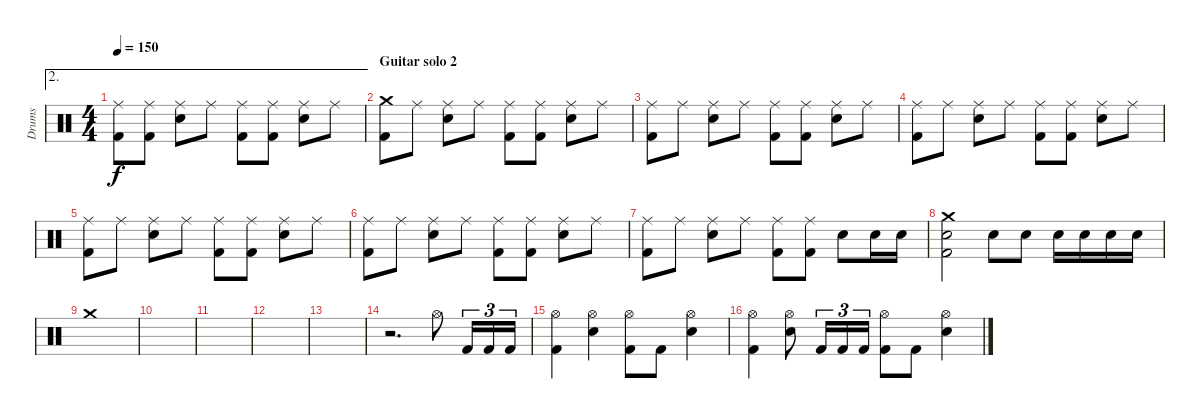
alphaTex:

\track ("Drums" "Drums") {instrument percussion}
\staff {score}
\articulation defaults
\ae 2
\ts (4 4)
\tempo 150
\clef neutral
\ks c
("Ride (middle)" "Kick (hit) 2").8{dy f} ("Ride (middle)" "Kick (hit) 2").8 ("Ride (middle)" "Electric Snare (hit)").8 "Ride (middle)".8 ("Ride (middle)" "Kick (hit) 2").8 ("Ride (middle)" "Kick (hit) 2").8 ("Ride (middle)" "Electric Snare (hit)").8 "Ride (middle)".8 |
\section ("" "Guitar solo 2")
("Crash medium (hit)" "Kick (hit) 2").8 "Ride (middle)".8 ("Ride (middle)" "Electric Snare (hit)").8 "Ride (middle)".8 ("Ride (middle)" "Kick (hit) 2").8 ("Ride (middle)" "Kick (hit) 2").8 ("Ride (middle)" "Electric Snare (hit)").8 "Ride (middle)".8 |
("Ride (middle)" "Kick (hit) 2").8 "Ride (middle)".8 ("Ride (middle)" "Electric Snare (hit)").8 "Ride (middle)".8 ("Ride (middle)" "Kick (hit) 2").8 ("Ride (middle)" "Kick (hit) 2").8 ("Ride (middle)" "Electric Snare (hit)").8 "Ride (middle)".8 |
("Ride (middle)" "Kick (hit) 2").8 "Ride (middle)".8 ("Ride (middle)" "Electric Snare (hit)").8 "Ride (middle)".8 ("Ride (middle)" "Kick (hit) 2").8 ("Ride (middle)" "Kick (hit) 2").8 ("Ride (middle)" "Electric Snare (hit)").8 "Ride (middle)".8 |
("Ride (middle)" "Kick (hit) 2").8 "Ride (middle)".8 ("Ride (middle)" "Electric Snare (hit)").8 "Ride (middle)".8 ("Ride (middle)" "Kick (hit) 2").8 ("Ride (middle)" "Kick (hit) 2").8 ("Ride (middle)" "Electric Snare (hit)").8 "Ride (middle)".8 |
("Ride (middle)" "Kick (hit) 2").8 "Ride (middle)".8 ("Ride (middle)" "Electric Snare (hit)").8 "Ride (middle)".8 ("Ride (middle)" "Kick (hit) 2").8 ("Ride (middle)" "Kick (hit) 2").8 ("Ride (middle)" "Electric Snare (hit)").8 "Ride (middle)".8 |
("Ride (middle)" "Kick (hit) 2").8 "Ride (middle)".8 ("Ride (middle)" "Electric Snare (hit)").8 "Ride (middle)".8 ("Ride (middle)" "Kick (hit) 2").8 ("Ride (middle)" "Kick (hit) 2").8 "Electric Snare (hit)".8 "Electric Snare (hit)".16 "Electric Snare (hit)".16 |
("Crash medium (hit)" "Electric Snare (hit)" "Kick (hit) 2").2 "Electric Snare (hit)".8 "Electric Snare (hit)".8 "Electric Snare (hit)".16 "Electric Snare (hit)".16 "Electric Snare (hit)".16 "Electric Snare (hit)".16 |
"Crash medium (hit)".1 |
|
|
|
|
r.2{d} "Hi-Hat (open)".8 "Kick (hit) 2".16{tu (3 2)} "Kick (hit) 2".16{tu (3 2)} "Kick (hit) 2".16{tu (3 2)} |
("Hi-Hat (open)" "Kick (hit) 2").4 ("Hi-Hat (open)" "Electric Snare (hit)").4 ("Hi-Hat (open)" "Kick (hit) 2").8 "Kick (hit) 2".8 ("Hi-Hat (open)" "Electric Snare (hit)").4 |
("Hi-Hat (open)" "Kick (hit) 2").4 ("Hi-Hat (open)" "Electric Snare (hit)").8 "Kick (hit) 2".16{tu (3 2)} "Kick (hit) 2".16{tu (3 2)} "Kick (hit) 2".16{tu (3 2)} ("Hi-Hat (open)" "Kick (hit) 2").8 "Kick (hit) 2".8 ("Hi-Hat (open)" "Electric Snare (hit)").4
